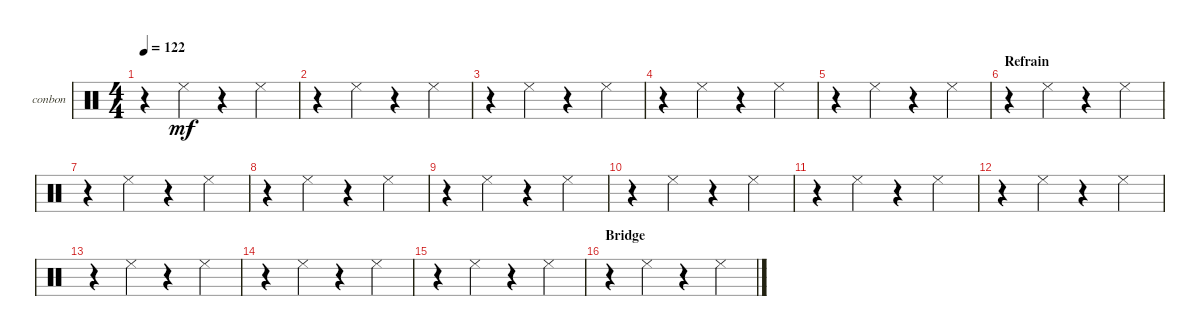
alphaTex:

\defaultSystemsLayout 4
\bracketExtendMode groupsimilarinstruments
\firstSystemTrackNameOrientation horizontal
\otherSystemsTrackNameOrientation horizontal
\track ("Bongos N Congas" "conbon") {instrument percussion}
\staff {score}
\articulation defaults
\ts (4 4)
\tempo 122
\clef neutral
\ks c
r.4{dy mf} "Cowbell low (tip)".4 r.4 "Cowbell low (tip)".4 |
r.4 "Cowbell low (tip)".4 r.4 "Cowbell low (tip)".4 |
r.4 "Cowbell low (tip)".4 r.4 "Cowbell low (tip)".4 |
r.4 "Cowbell low (tip)".4 r.4 "Cowbell low (tip)".4 |
r.4 "Cowbell low (tip)".4 r.4 "Cowbell low (tip)".4 |
\section ("" "Refrain")
\scale
0.237113 r.4 "Cowbell low (tip)".4 r.4 "Cowbell low (tip)".4 |
r.4 "Cowbell low (tip)".4 r.4 "Cowbell low (tip)".4 |
r.4 "Cowbell low (tip)".4 r.4 "Cowbell low (tip)".4 |
r.4 "Cowbell low (tip)".4 r.4 "Cowbell low (tip)".4 |
r.4 "Cowbell low (tip)".4 r.4 "Cowbell low (tip)".4 |
r.4 "Cowbell low (tip)".4 r.4 "Cowbell low (tip)".4 |
r.4 "Cowbell low (tip)".4 r.4 "Cowbell low (tip)".4 |
r.4 "Cowbell low (tip)".4 r.4 "Cowbell low (tip)".4 |
r.4 "Cowbell low (tip)".4 r.4 "Cowbell low (tip)".4 |
r.4 "Cowbell low (tip)".4 r.4 "Cowbell low (tip)".4 |
\section ("" "Bridge")
r.4 "Cowbell low (tip)".4 r.4 "Cowbell low (tip)".4
